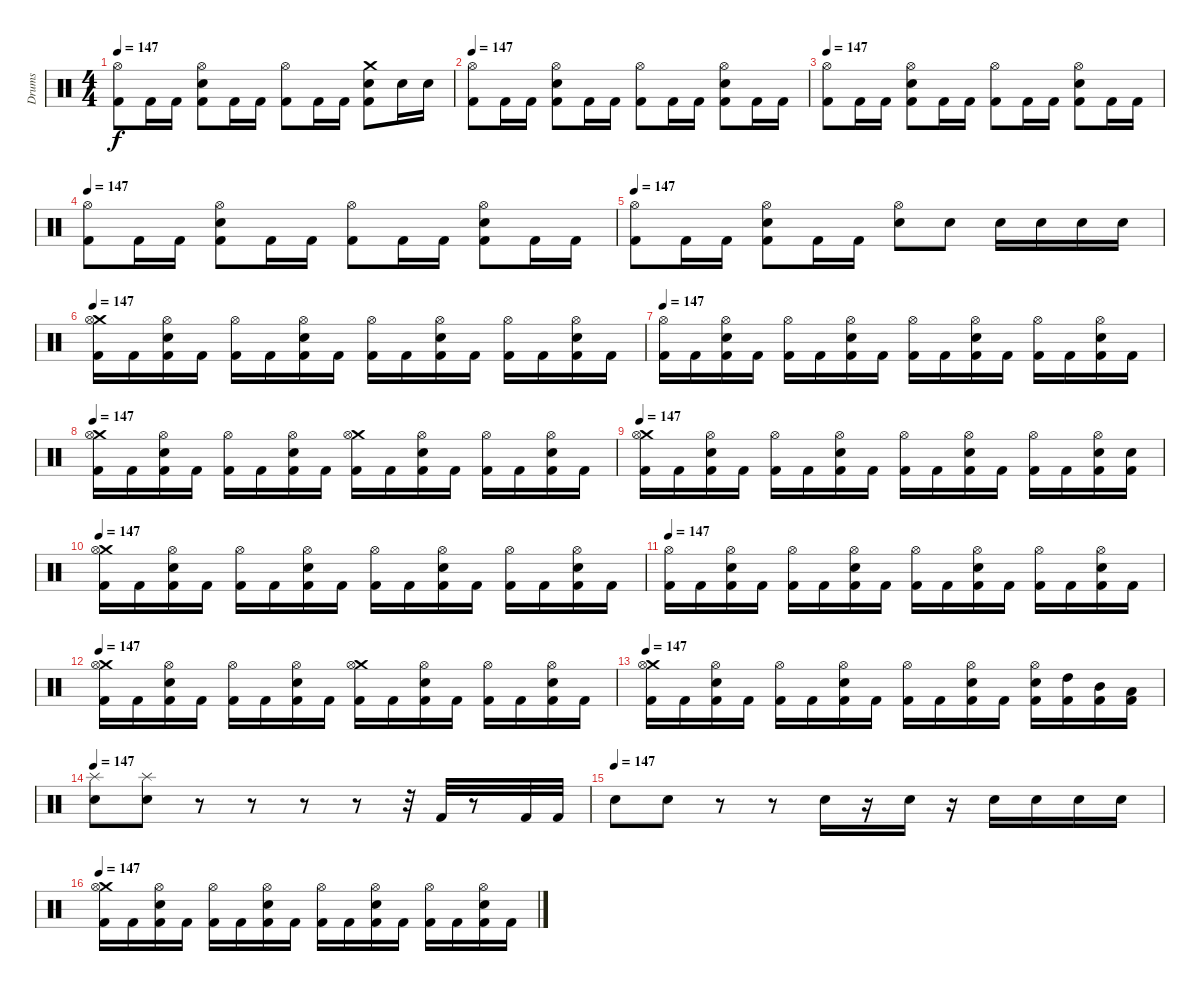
\track ("Drums" "Drums") {instrument percussion}
\staff {score}
\articulation defaults
\ts (4 4)
\tempo 147
\clef neutral
\ks c
("Hi-Hat (open)" "Kick (hit) 2").8{dy f} "Kick (hit) 2".16 "Kick (hit) 2".16 ("Hi-Hat (open)" "Electric Snare (hit)" "Kick (hit) 2").8 "Kick (hit) 2".16 "Kick (hit) 2".16 ("Hi-Hat (open)" "Kick (hit) 2").8 "Kick (hit) 2".16 "Kick (hit) 2".16 ("Crash medium (hit)" "Electric Snare (hit)" "Kick (hit) 2").8 "Electric Snare (hit)".16 "Electric Snare (hit)".16 |
\tempo 147
("Hi-Hat (open)" "Kick (hit) 2").8 "Kick (hit) 2".16 "Kick (hit) 2".16 ("Hi-Hat (open)" "Electric Snare (hit)" "Kick (hit) 2").8 "Kick (hit) 2".16 "Kick (hit) 2".16 ("Hi-Hat (open)" "Kick (hit) 2").8 "Kick (hit) 2".16 "Kick (hit) 2".16 ("Hi-Hat (open)" "Electric Snare (hit)" "Kick (hit) 2").8 "Kick (hit) 2".16 "Kick (hit) 2".16 |
\tempo 147
("Hi-Hat (open)" "Kick (hit) 2").8 "Kick (hit) 2".16 "Kick (hit) 2".16 ("Hi-Hat (open)" "Electric Snare (hit)" "Kick (hit) 2").8 "Kick (hit) 2".16 "Kick (hit) 2".16 ("Hi-Hat (open)" "Kick (hit) 2").8 "Kick (hit) 2".16 "Kick (hit) 2".16 ("Hi-Hat (open)" "Electric Snare (hit)" "Kick (hit) 2").8 "Kick (hit) 2".16 "Kick (hit) 2".16 |
\tempo 147
("Hi-Hat (open)" "Kick (hit) 2").8 "Kick (hit) 2".16 "Kick (hit) 2".16 ("Hi-Hat (open)" "Electric Snare (hit)" "Kick (hit) 2").8 "Kick (hit) 2".16 "Kick (hit) 2".16 ("Hi-Hat (open)" "Kick (hit) 2").8 "Kick (hit) 2".16 "Kick (hit) 2".16 ("Hi-Hat (open)" "Electric Snare (hit)" "Kick (hit) 2").8 "Kick (hit) 2".16 "Kick (hit) 2".16 |
\tempo 147
("Hi-Hat (open)" "Kick (hit) 2").8 "Kick (hit) 2".16 "Kick (hit) 2".16 ("Hi-Hat (open)" "Electric Snare (hit)" "Kick (hit) 2").8 "Kick (hit) 2".16 "Kick (hit) 2".16 ("Hi-Hat (open)" "Snare (hit) 2").8 "Snare (hit) 2".8 "Snare (hit) 2".16 "Snare (hit) 2".16 "Snare (hit) 2".16 "Snare (hit) 2".16 |
\tempo 147
("Crash medium (hit)" "Hi-Hat (open)" "Kick (hit) 2").16 "Kick (hit) 2".16 ("Hi-Hat (open)" "Electric Snare (hit)" "Kick (hit) 2").16 "Kick (hit) 2".16 ("Hi-Hat (open)" "Kick (hit) 2").16 "Kick (hit) 2".16 ("Hi-Hat (open)" "Electric Snare (hit)" "Kick (hit) 2").16 "Kick (hit) 2".16 ("Hi-Hat (open)" "Kick (hit) 2").16 "Kick (hit) 2".16 ("Hi-Hat (open)" "Electric Snare (hit)" "Kick (hit) 2").16 "Kick (hit) 2".16 ("Hi-Hat (open)" "Kick (hit) 2").16 "Kick (hit) 2".16 ("Hi-Hat (open)" "Electric Snare (hit)" "Kick (hit) 2").16 "Kick (hit) 2".16 |
\tempo 147
("Hi-Hat (open)" "Kick (hit) 2").16 "Kick (hit) 2".16 ("Hi-Hat (open)" "Electric Snare (hit)" "Kick (hit) 2").16 "Kick (hit) 2".16 ("Hi-Hat (open)" "Kick (hit) 2").16 "Kick (hit) 2".16 ("Hi-Hat (open)" "Electric Snare (hit)" "Kick (hit) 2").16 "Kick (hit) 2".16 ("Hi-Hat (open)" "Kick (hit) 2").16 "Kick (hit) 2".16 ("Hi-Hat (open)" "Electric Snare (hit)" "Kick (hit) 2").16 "Kick (hit) 2".16 ("Hi-Hat (open)" "Kick (hit) 2").16 "Kick (hit) 2".16 ("Hi-Hat (open)" "Electric Snare (hit)" "Kick (hit) 2").16 "Kick (hit) 2".16 |
\tempo 147
("Crash medium (hit)" "Hi-Hat (open)" "Kick (hit) 2").16 "Kick (hit) 2".16 ("Hi-Hat (open)" "Electric Snare (hit)" "Kick (hit) 2").16 "Kick (hit) 2".16 ("Hi-Hat (open)" "Kick (hit) 2").16 "Kick (hit) 2".16 ("Hi-Hat (open)" "Electric Snare (hit)" "Kick (hit) 2").16 "Kick (hit) 2".16 ("Crash medium (hit)" "Hi-Hat (open)" "Kick (hit) 2").16 "Kick (hit) 2".16 ("Hi-Hat (open)" "Electric Snare (hit)" "Kick (hit) 2").16 "Kick (hit) 2".16 ("Hi-Hat (open)" "Kick (hit) 2").16 "Kick (hit) 2".16 ("Hi-Hat (open)" "Electric Snare (hit)" "Kick (hit) 2").16 "Kick (hit) 2".16 |
\tempo 147
("Crash medium (hit)" "Hi-Hat (open)" "Kick (hit) 2").16 "Kick (hit) 2".16 ("Hi-Hat (open)" "Electric Snare (hit)" "Kick (hit) 2").16 "Kick (hit) 2".16 ("Hi-Hat (open)" "Kick (hit) 2").16 "Kick (hit) 2".16 ("Hi-Hat (open)" "Electric Snare (hit)" "Kick (hit) 2").16 "Kick (hit) 2".16 ("Hi-Hat (open)" "Kick (hit) 2").16 "Kick (hit) 2".16 ("Hi-Hat (open)" "Electric Snare (hit)" "Kick (hit) 2").16 "Kick (hit) 2".16 ("Hi-Hat (open)" "Kick (hit) 2").16 "Kick (hit) 2".16 ("Hi-Hat (open)" "Electric Snare (hit)" "Kick (hit) 2").16 ("Electric Snare (hit)" "Kick (hit) 2").16 |
\tempo 147
("Crash medium (hit)" "Hi-Hat (open)" "Kick (hit) 2").16 "Kick (hit) 2".16 ("Hi-Hat (open)" "Electric Snare (hit)" "Kick (hit) 2").16 "Kick (hit) 2".16 ("Hi-Hat (open)" "Kick (hit) 2").16 "Kick (hit) 2".16 ("Hi-Hat (open)" "Electric Snare (hit)" "Kick (hit) 2").16 "Kick (hit) 2".16 ("Hi-Hat (open)" "Kick (hit) 2").16 "Kick (hit) 2".16 ("Hi-Hat (open)" "Electric Snare (hit)" "Kick (hit) 2").16 "Kick (hit) 2".16 ("Hi-Hat (open)" "Kick (hit) 2").16 "Kick (hit) 2".16 ("Hi-Hat (open)" "Electric Snare (hit)" "Kick (hit) 2").16 "Kick (hit) 2".16 |
\tempo 147
("Hi-Hat (open)" "Kick (hit) 2").16 "Kick (hit) 2".16 ("Hi-Hat (open)" "Electric Snare (hit)" "Kick (hit) 2").16 "Kick (hit) 2".16 ("Hi-Hat (open)" "Kick (hit) 2").16 "Kick (hit) 2".16 ("Hi-Hat (open)" "Electric Snare (hit)" "Kick (hit) 2").16 "Kick (hit) 2".16 ("Hi-Hat (open)" "Kick (hit) 2").16 "Kick (hit) 2".16 ("Hi-Hat (open)" "Electric Snare (hit)" "Kick (hit) 2").16 "Kick (hit) 2".16 ("Hi-Hat (open)" "Kick (hit) 2").16 "Kick (hit) 2".16 ("Hi-Hat (open)" "Electric Snare (hit)" "Kick (hit) 2").16 "Kick (hit) 2".16 |
\tempo 147
("Crash medium (hit)" "Hi-Hat (open)" "Kick (hit) 2").16 "Kick (hit) 2".16 ("Hi-Hat (open)" "Electric Snare (hit)" "Kick (hit) 2").16 "Kick (hit) 2".16 ("Hi-Hat (open)" "Kick (hit) 2").16 "Kick (hit) 2".16 ("Hi-Hat (open)" "Electric Snare (hit)" "Kick (hit) 2").16 "Kick (hit) 2".16 ("Crash medium (hit)" "Hi-Hat (open)" "Kick (hit) 2").16 "Kick (hit) 2".16 ("Hi-Hat (open)" "Electric Snare (hit)" "Kick (hit) 2").16 "Kick (hit) 2".16 ("Hi-Hat (open)" "Kick (hit) 2").16 "Kick (hit) 2".16 ("Hi-Hat (open)" "Electric Snare (hit)" "Kick (hit) 2").16 "Kick (hit) 2".16 |
\tempo 147
("Crash medium (hit)" "Hi-Hat (open)" "Kick (hit) 2").16 "Kick (hit) 2".16 ("Hi-Hat (open)" "Electric Snare (hit)" "Kick (hit) 2").16 "Kick (hit) 2".16 ("Hi-Hat (open)" "Kick (hit) 2").16 "Kick (hit) 2".16 ("Hi-Hat (open)" "Electric Snare (hit)" "Kick (hit) 2").16 "Kick (hit) 2".16 ("Hi-Hat (open)" "Kick (hit) 2").16 "Kick (hit) 2".16 ("Hi-Hat (open)" "Electric Snare (hit)" "Kick (hit) 2").16 "Kick (hit) 2".16 ("Hi-Hat (open)" "Electric Snare (hit)" "Kick (hit) 2").16 ("High Tom (hit)" "Kick (hit) 2").16 ("Mid Tom (hit)" "Kick (hit) 2").16 ("Low Tom (hit)" "Kick (hit) 2").16 |
\tempo 147
("Splash (hit)" "Electric Snare (hit)").8 ("Splash (hit)" "Electric Snare (hit)").8 r.8 r.8 r.8 r.8 r.32 "Kick (hit) 2".32 r.8 "Kick (hit) 2".32 "Kick (hit) 2".32 |
\tempo (147)
"Electric Snare (hit)".8 "Electric Snare (hit)".8 r.8 r.8 "Electric Snare (hit)".16 r.16 "Electric Snare (hit)".16 r.16 "Electric Snare (hit)".16 "Electric Snare (hit)".16 "Electric Snare (hit)".16 "Electric Snare (hit)".16 |
\tempo 147
("Crash medium (hit)" "Hi-Hat (open)" "Kick (hit) 2").16 "Kick (hit) 2".16 ("Hi-Hat (open)" "Electric Snare (hit)" "Kick (hit) 2").16 "Kick (hit) 2".16 ("Hi-Hat (open)" "Kick (hit) 2").16 "Kick (hit) 2".16 ("Hi-Hat (open)" "Electric Snare (hit)" "Kick (hit) 2").16 "Kick (hit) 2".16 ("Hi-Hat (open)" "Kick (hit) 2").16 "Kick (hit) 2".16 ("Hi-Hat (open)" "Electric Snare (hit)" "Kick (hit) 2").16 "Kick (hit) 2".16 ("Hi-Hat (open)" "Kick (hit) 2").16 "Kick (hit) 2".16 ("Hi-Hat (open)" "Electric Snare (hit)" "Kick (hit) 2").16 "Kick (hit) 2".16
